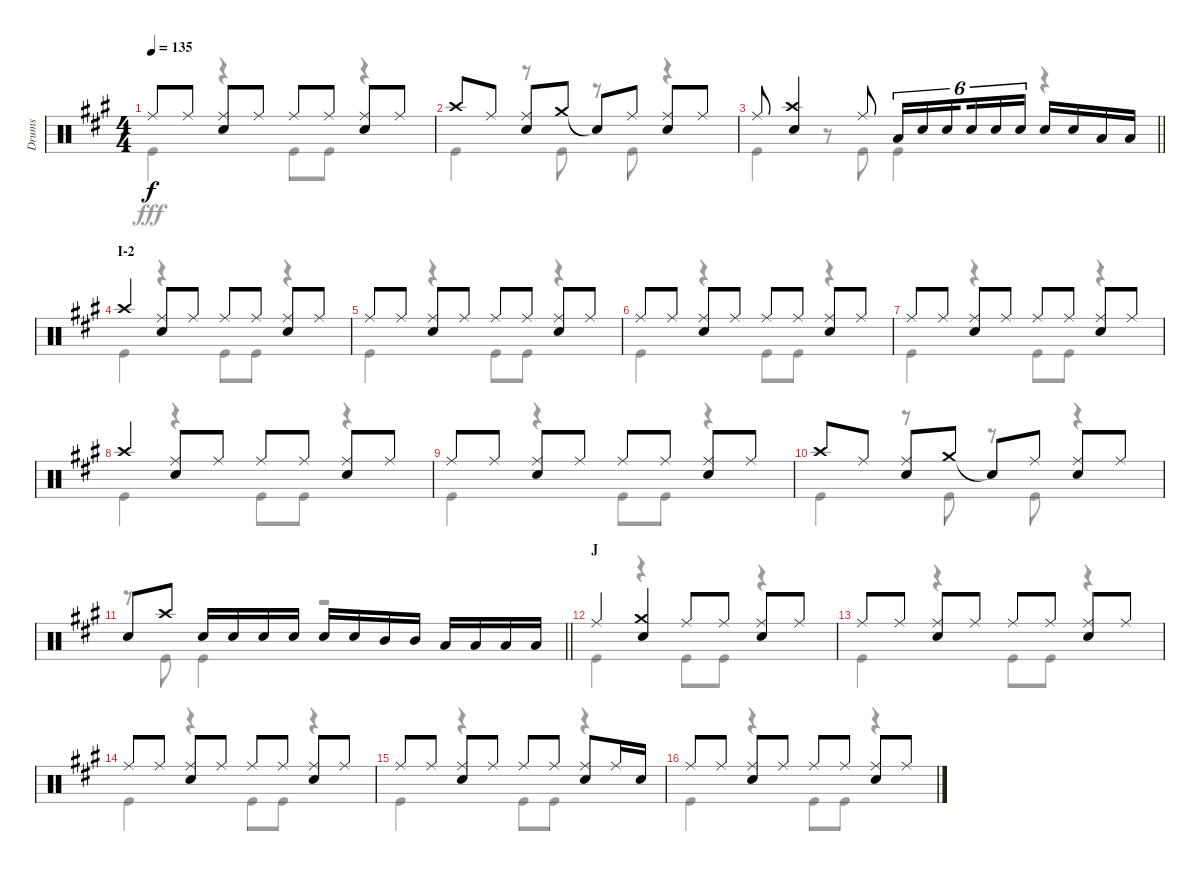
\track ("Drums" "Drums") {instrument percussion}
\staff {score}
\articulation defaults
\voice
\ts (4 4)
\tempo 135
\clef neutral
\ks a "Ride (middle)".8{dy f} "Ride (middle)".8
("Ride (middle)" "Snare (hit) 2").8 "Ride (middle)".8 "Ride (middle)".8 "Ride (middle)".8 ("Ride (middle)" "Snare (hit) 2").8 "Ride (middle)".8 |
"Crash high (hit)".8 "Ride (middle)".8 ("Ride (middle)" "Snare (hit) 2").8 "Crash medium (hit)".8 "Snare (hit)"{t}.8 "Ride (middle)".8 ("Ride (middle)" "Snare (hit) 2").8 "Ride (middle)".8 |
\barLineRight lightlight "Ride (middle)".8
("Crash high (hit)" "Snare (hit) 2").4 "Ride (middle)".8 "Low Tom (hit)".16{tu (6 4)} "Snare (hit) 2".16{tu (6 4)} "Snare (hit) 2".16{tu (6 4) beam splitsecondary} "Snare (hit) 2".16{tu (6 4)} "Snare (hit) 2".16{tu (6 4)} "Snare (hit) 2".16{tu (6 4)} "Snare (hit) 2".16 "Snare (hit) 2".16 "Low Tom (hit)".16 "Low Tom (hit)".16 |
\section ("" "I-2")
"Crash high (hit)".4 ("Ride (middle)" "Snare (hit) 2").8 "Ride (middle)".8 "Ride (middle)".8 "Ride (middle)".8 ("Ride (middle)" "Snare (hit) 2").8 "Ride (middle)".8 |
"Ride (middle)".8 "Ride (middle)".8 ("Ride (middle)" "Snare (hit) 2").8 "Ride (middle)".8 "Ride (middle)".8 "Ride (middle)".8 ("Ride (middle)" "Snare (hit) 2").8 "Ride (middle)".8 |
"Ride (middle)".8 "Ride (middle)".8 ("Ride (middle)" "Snare (hit) 2").8 "Ride (middle)".8 "Ride (middle)".8 "Ride (middle)".8 ("Ride (middle)" "Snare (hit) 2").8 "Ride (middle)".8 |
"Ride (middle)".8 "Ride (middle)".8 ("Ride (middle)" "Snare (hit) 2").8 "Ride (middle)".8 "Ride (middle)".8 "Ride (middle)".8 ("Ride (middle)" "Snare (hit) 2").8 "Ride (middle)".8 |
"Crash high (hit)".4 ("Ride (middle)" "Snare (hit) 2").8 "Ride (middle)".8 "Ride (middle)".8 "Ride (middle)".8 ("Ride (middle)" "Snare (hit) 2").8 "Ride (middle)".8 |
"Ride (middle)".8 "Ride (middle)".8 ("Ride (middle)" "Snare (hit) 2").8 "Ride (middle)".8 "Ride (middle)".8 "Ride (middle)".8 ("Ride (middle)" "Snare (hit) 2").8 "Ride (middle)".8 |
"Crash high (hit)".8 "Ride (middle)".8 ("Ride (middle)" "Snare (hit) 2").8 "Crash medium (hit)".8 "Snare (hit)"{t}.8 "Ride (middle)".8 ("Ride (middle)" "Snare (hit) 2").8 "Ride (middle)".8 |
\barLineRight lightlight "Snare (hit) 2".8 "Crash high (hit)".8 "Snare (hit) 2".16 "Snare (hit) 2".16 "Snare (hit) 2".16 "Snare (hit) 2".16 "Snare (hit) 2".16 "Snare (hit) 2".16 "Mid Tom (hit)".16 "Mid Tom (hit)".16 "Low Tom (hit)".16 "Low Tom (hit)".16 "Low Floor Tom (hit)".16 "Low Floor Tom (hit)".16
|
\section ("" "J")
"Ride (middle)".4 ("Crash medium (hit)" "Snare (hit) 2").4 "Ride (middle)".8 "Ride (middle)".8 ("Ride (middle)" "Snare (hit) 2").8 "Ride (middle)".8 |
"Ride (middle)".8 "Ride (middle)".8 ("Ride (middle)" "Snare (hit) 2").8 "Ride (middle)".8 "Ride (middle)".8 "Ride (middle)".8 ("Ride (middle)" "Snare (hit) 2").8 "Ride (middle)".8 |
"Ride (middle)".8 "Ride (middle)".8 ("Ride (middle)" "Snare (hit) 2").8 "Ride (middle)".8 "Ride (middle)".8 "Ride (middle)".8 ("Ride (middle)" "Snare (hit) 2").8 "Ride (middle)".8 |
"Ride (middle)".8 "Ride (middle)".8 ("Ride (middle)" "Snare (hit) 2").8 "Ride (middle)".8 "Ride (middle)".8 "Ride (middle)".8 ("Ride (middle)" "Snare (hit) 2").8 "Ride (middle)".16 "Snare (hit) 2".16 |
"Ride (middle)".8 "Ride (middle)".8 ("Ride (middle)" "Snare (hit) 2").8 "Ride (middle)".8 "Ride (middle)".8 "Ride (middle)".8 ("Ride (middle)" "Snare (hit) 2").8 "Ride (middle)".8
\voice
\clef neutral
\ottava regular
\simile none
\ks a "Kick (hit)".4{dy fff}
r.4 "Kick (hit)".8 "Kick (hit)".8 r.4 |
"Kick (hit)".4 r.8 "Kick (hit)".8 r.8 "Kick (hit)".8 r.4 |
\barLineRight lightlight "Kick (hit)".4
r.8 "Kick (hit)".8 "Kick (hit)".4 r.4 |
"Kick (hit)".4 r.4 "Kick (hit)".8 "Kick (hit)".8 r.4 |
"Kick (hit)".4 r.4 "Kick (hit)".8 "Kick (hit)".8 r.4 |
"Kick (hit)".4 r.4 "Kick (hit)".8 "Kick (hit)".8 r.4 |
"Kick (hit)".4 r.4 "Kick (hit)".8 "Kick (hit)".8 r.4 |
"Kick (hit)".4 r.4 "Kick (hit)".8 "Kick (hit)".8 r.4 |
"Kick (hit)".4 r.4 "Kick (hit)".8 "Kick (hit)".8 r.4 |
"Kick (hit)".4 r.8 "Kick (hit)".8 r.8 "Kick (hit)".8 r.4 |
\barLineRight lightlight
r.8 "Kick (hit)".8 "Kick (hit)".4 r.2 |
"Kick (hit)".4 r.4 "Kick (hit)".8 "Kick (hit)".8 r.4 |
"Kick (hit)".4 r.4 "Kick (hit)".8 "Kick (hit)".8 r.4 |
"Kick (hit)".4 r.4 "Kick (hit)".8 "Kick (hit)".8 r.4 |
"Kick (hit)".4 r.4 "Kick (hit)".8 "Kick (hit)".8 r.4 |
"Kick (hit)".4 r.4 "Kick (hit)".8 "Kick (hit)".8 r.4
